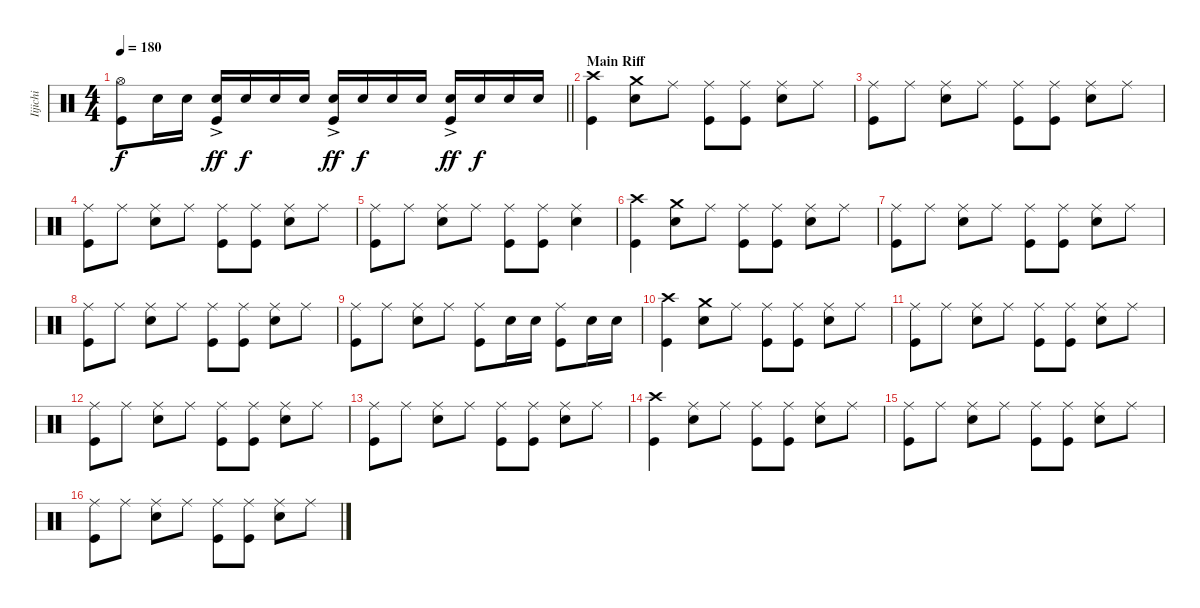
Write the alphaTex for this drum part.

\track ("Iijichi" "Iijichi") {instrument percussion}
\staff {score}
\articulation defaults
\ts (4 4)
\tempo 180
\clef neutral
\barLineRight lightlight
\ks c
("Kick (hit)" "Hi-Hat (open)").8{dy f} "Electric Snare (hit)".16 "Electric Snare (hit)".16 ("Electric Snare (hit)"{ac} "Kick (hit)").16{dy ff} "Electric Snare (hit)".16{dy f} "Electric Snare (hit)".16 "Electric Snare (hit)".16 ("Electric Snare (hit)"{ac} "Kick (hit)").16{dy ff} "Electric Snare (hit)".16{dy f} "Electric Snare (hit)".16 "Electric Snare (hit)".16 ("Electric Snare (hit)"{ac} "Kick (hit)").16{dy ff} "Electric Snare (hit)".16{dy f} "Electric Snare (hit)".16 "Electric Snare (hit)".16 |
\section ("" "Main Riff")
("Kick (hit)" "Crash high (hit)").4 ("Electric Snare (hit)" "Crash medium (hit)").8 "Ride (middle)".8 ("Ride (middle)" "Kick (hit)").8 ("Ride (middle)" "Kick (hit)").8 ("Ride (middle)" "Electric Snare (hit)").8 "Ride (middle)".8 |
("Ride (middle)" "Kick (hit)").8 "Ride (middle)".8 ("Ride (middle)" "Electric Snare (hit)").8 "Ride (middle)".8 ("Ride (middle)" "Kick (hit)").8 ("Ride (middle)" "Kick (hit)").8 ("Ride (middle)" "Electric Snare (hit)").8 "Ride (middle)".8 |
("Ride (middle)" "Kick (hit)").8 "Ride (middle)".8 ("Ride (middle)" "Electric Snare (hit)").8 "Ride (middle)".8 ("Ride (middle)" "Kick (hit)").8 ("Ride (middle)" "Kick (hit)").8 ("Ride (middle)" "Electric Snare (hit)").8 "Ride (middle)".8 |
("Ride (middle)" "Kick (hit)").8 "Ride (middle)".8 ("Ride (middle)" "Electric Snare (hit)").8 "Ride (middle)".8 ("Ride (middle)" "Kick (hit)").8 ("Ride (middle)" "Kick (hit)").8 ("Ride (middle)" "Electric Snare (hit)").4 |
("Kick (hit)" "Crash high (hit)").4 ("Electric Snare (hit)" "Crash medium (hit)").8 "Ride (middle)".8 ("Ride (middle)" "Kick (hit)").8 ("Ride (middle)" "Kick (hit)").8 ("Ride (middle)" "Electric Snare (hit)").8 "Ride (middle)".8 |
("Ride (middle)" "Kick (hit)").8 "Ride (middle)".8 ("Ride (middle)" "Electric Snare (hit)").8 "Ride (middle)".8 ("Ride (middle)" "Kick (hit)").8 ("Ride (middle)" "Kick (hit)").8 ("Ride (middle)" "Electric Snare (hit)").8 "Ride (middle)".8 |
("Ride (middle)" "Kick (hit)").8 "Ride (middle)".8 ("Ride (middle)" "Electric Snare (hit)").8 "Ride (middle)".8 ("Ride (middle)" "Kick (hit)").8 ("Ride (middle)" "Kick (hit)").8 ("Ride (middle)" "Electric Snare (hit)").8 "Ride (middle)".8 |
("Ride (middle)" "Kick (hit)").8 "Ride (middle)".8 ("Ride (middle)" "Electric Snare (hit)").8 "Ride (middle)".8 ("Ride (middle)" "Kick (hit)").8 "Electric Snare (hit)".16 "Electric Snare (hit)".16 ("Kick (hit)" "Ride (middle)").8 "Electric Snare (hit)".16 "Electric Snare (hit)".16 |
("Kick (hit)" "Crash high (hit)").4 ("Electric Snare (hit)" "Crash medium (hit)").8 "Ride (middle)".8 ("Ride (middle)" "Kick (hit)").8 ("Ride (middle)" "Kick (hit)").8 ("Ride (middle)" "Electric Snare (hit)").8 "Ride (middle)".8 |
("Ride (middle)" "Kick (hit)").8 "Ride (middle)".8 ("Ride (middle)" "Electric Snare (hit)").8 "Ride (middle)".8 ("Ride (middle)" "Kick (hit)").8 ("Ride (middle)" "Kick (hit)").8 ("Ride (middle)" "Electric Snare (hit)").8 "Ride (middle)".8 |
("Ride (middle)" "Kick (hit)").8 "Ride (middle)".8 ("Ride (middle)" "Electric Snare (hit)").8 "Ride (middle)".8 ("Ride (middle)" "Kick (hit)").8 ("Ride (middle)" "Kick (hit)").8 ("Ride (middle)" "Electric Snare (hit)").8 "Ride (middle)".8 |
("Ride (middle)" "Kick (hit)").8 "Ride (middle)".8 ("Ride (middle)" "Electric Snare (hit)").8 "Ride (middle)".8 ("Ride (middle)" "Kick (hit)").8 ("Ride (middle)" "Kick (hit)").8 ("Ride (middle)" "Electric Snare (hit)").8 "Ride (middle)".8 |
("Kick (hit)" "Crash high (hit)").4 ("Electric Snare (hit)" "Ride (middle)").8 "Ride (middle)".8 ("Ride (middle)" "Kick (hit)").8 ("Ride (middle)" "Kick (hit)").8 ("Ride (middle)" "Electric Snare (hit)").8 "Ride (middle)".8 |
("Ride (middle)" "Kick (hit)").8 "Ride (middle)".8 ("Ride (middle)" "Electric Snare (hit)").8 "Ride (middle)".8 ("Ride (middle)" "Kick (hit)").8 ("Ride (middle)" "Kick (hit)").8 ("Ride (middle)" "Electric Snare (hit)").8 "Ride (middle)".8 |
("Ride (middle)" "Kick (hit)").8 "Ride (middle)".8 ("Ride (middle)" "Electric Snare (hit)").8 "Ride (middle)".8 ("Ride (middle)" "Kick (hit)").8 ("Ride (middle)" "Kick (hit)").8 ("Ride (middle)" "Electric Snare (hit)").8 "Ride (middle)".8
